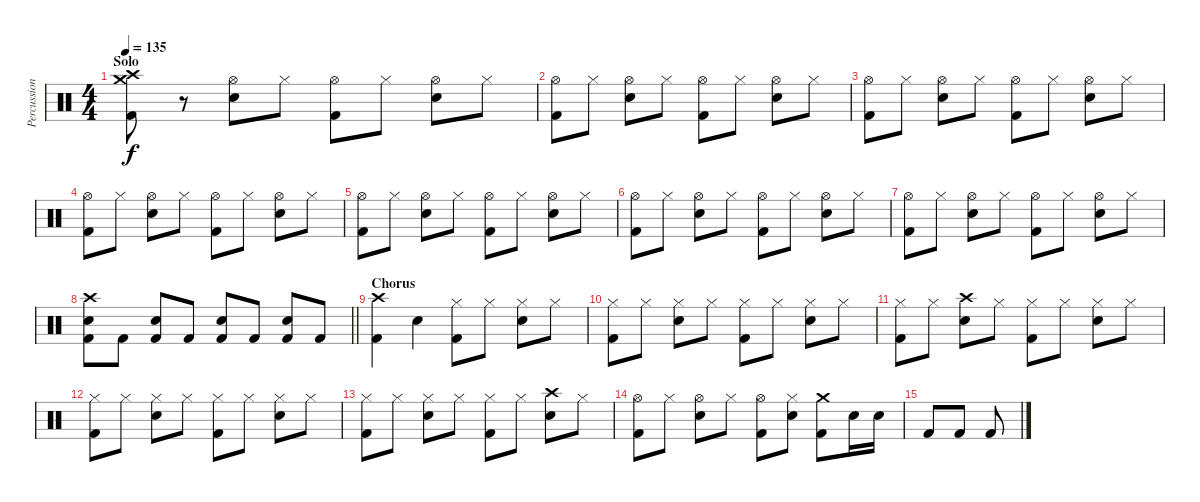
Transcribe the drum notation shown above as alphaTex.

\track ("Percussion" "Percussion") {instrument percussion}
\staff {score}
\articulation defaults
\ts (4 4)
\section ("" "Solo")
\tempo 135
\clef neutral
\ks c
("Crash medium (hit)" "Crash high (hit)" "Kick (hit) 2").8{dy f} r.8 ("Hi-Hat (open)" "Electric Snare (hit)").8 "Hi-Hat (closed)".8 ("Hi-Hat (open)" "Kick (hit) 2").8 "Hi-Hat (closed)".8 ("Hi-Hat (open)" "Electric Snare (hit)").8 "Hi-Hat (closed)".8 |
("Hi-Hat (open)" "Kick (hit) 2").8 "Hi-Hat (closed)".8 ("Hi-Hat (open)" "Electric Snare (hit)").8 "Hi-Hat (closed)".8 ("Hi-Hat (open)" "Kick (hit) 2").8 "Hi-Hat (closed)".8 ("Hi-Hat (open)" "Electric Snare (hit)").8 "Hi-Hat (closed)".8 |
("Hi-Hat (open)" "Kick (hit) 2").8 "Hi-Hat (closed)".8 ("Hi-Hat (open)" "Electric Snare (hit)").8 "Hi-Hat (closed)".8 ("Hi-Hat (open)" "Kick (hit) 2").8 "Hi-Hat (closed)".8 ("Hi-Hat (open)" "Electric Snare (hit)").8 "Hi-Hat (closed)".8 |
("Hi-Hat (open)" "Kick (hit) 2").8 "Hi-Hat (closed)".8 ("Hi-Hat (open)" "Electric Snare (hit)").8 "Hi-Hat (closed)".8 ("Hi-Hat (open)" "Kick (hit) 2").8 "Hi-Hat (closed)".8 ("Hi-Hat (open)" "Electric Snare (hit)").8 "Hi-Hat (closed)".8 |
("Hi-Hat (open)" "Kick (hit) 2").8 "Hi-Hat (closed)".8 ("Hi-Hat (open)" "Electric Snare (hit)").8 "Hi-Hat (closed)".8 ("Hi-Hat (open)" "Kick (hit) 2").8 "Hi-Hat (closed)".8 ("Hi-Hat (open)" "Electric Snare (hit)").8 "Hi-Hat (closed)".8 |
("Hi-Hat (open)" "Kick (hit) 2").8 "Hi-Hat (closed)".8 ("Hi-Hat (open)" "Electric Snare (hit)").8 "Hi-Hat (closed)".8 ("Hi-Hat (open)" "Kick (hit) 2").8 "Hi-Hat (closed)".8 ("Hi-Hat (open)" "Electric Snare (hit)").8 "Hi-Hat (closed)".8 |
("Hi-Hat (open)" "Kick (hit) 2").8 "Hi-Hat (closed)".8 ("Hi-Hat (open)" "Electric Snare (hit)").8 "Hi-Hat (closed)".8 ("Hi-Hat (open)" "Kick (hit) 2").8 "Hi-Hat (closed)".8 ("Hi-Hat (open)" "Electric Snare (hit)").8 "Hi-Hat (closed)".8 |
\barLineRight lightlight
("Crash high (hit)" "Electric Snare (hit)" "Kick (hit) 2").8 "Kick (hit) 2".8 ("Electric Snare (hit)" "Kick (hit) 2").8 "Kick (hit) 2".8 ("Electric Snare (hit)" "Kick (hit) 2").8 "Kick (hit) 2".8 ("Electric Snare (hit)" "Kick (hit) 2").8 "Kick (hit) 2".8 |
\section ("" "Chorus")
("Crash high (hit)" "Kick (hit) 2").4 "Electric Snare (hit)".4 ("Hi-Hat (closed)" "Kick (hit) 2").8 "Hi-Hat (closed)".8 ("Hi-Hat (closed)" "Electric Snare (hit)").8 "Hi-Hat (closed)".8 |
("Hi-Hat (closed)" "Kick (hit) 2").8 "Hi-Hat (closed)".8 ("Hi-Hat (closed)" "Electric Snare (hit)").8 "Hi-Hat (closed)".8 ("Hi-Hat (closed)" "Kick (hit) 2").8 "Hi-Hat (closed)".8 ("Hi-Hat (closed)" "Electric Snare (hit)").8 "Hi-Hat (closed)".8 |
("Hi-Hat (closed)" "Kick (hit) 2").8 "Hi-Hat (closed)".8 ("Crash high (hit)" "Electric Snare (hit)").8 "Hi-Hat (closed)".8 ("Hi-Hat (closed)" "Kick (hit) 2").8 "Hi-Hat (closed)".8 ("Hi-Hat (closed)" "Electric Snare (hit)").8 "Hi-Hat (closed)".8 |
("Hi-Hat (closed)" "Kick (hit) 2").8 "Hi-Hat (closed)".8 ("Hi-Hat (closed)" "Electric Snare (hit)").8 "Hi-Hat (closed)".8 ("Hi-Hat (closed)" "Kick (hit) 2").8 "Hi-Hat (closed)".8 ("Hi-Hat (closed)" "Electric Snare (hit)").8 "Hi-Hat (closed)".8 |
("Hi-Hat (closed)" "Kick (hit) 2").8 "Hi-Hat (closed)".8 ("Hi-Hat (closed)" "Electric Snare (hit)").8 "Hi-Hat (closed)".8 ("Hi-Hat (closed)" "Kick (hit) 2").8 "Hi-Hat (closed)".8 ("Crash high (hit)" "Electric Snare (hit)").8 "Hi-Hat (closed)".8 |
("Hi-Hat (open)" "Kick (hit) 2").8 "Hi-Hat (closed)".8 ("Hi-Hat (open)" "Electric Snare (hit)").8 "Hi-Hat (closed)".8 ("Hi-Hat (open)" "Kick (hit) 2").8 ("Hi-Hat (closed)" "Electric Snare (hit)").8 ("Crash medium (hit)" "Kick (hit) 2").8 "Electric Snare (hit)".16 "Electric Snare (hit)".16 |
"Kick (hit) 2".8 "Kick (hit) 2".8 "Kick (hit) 2".8
